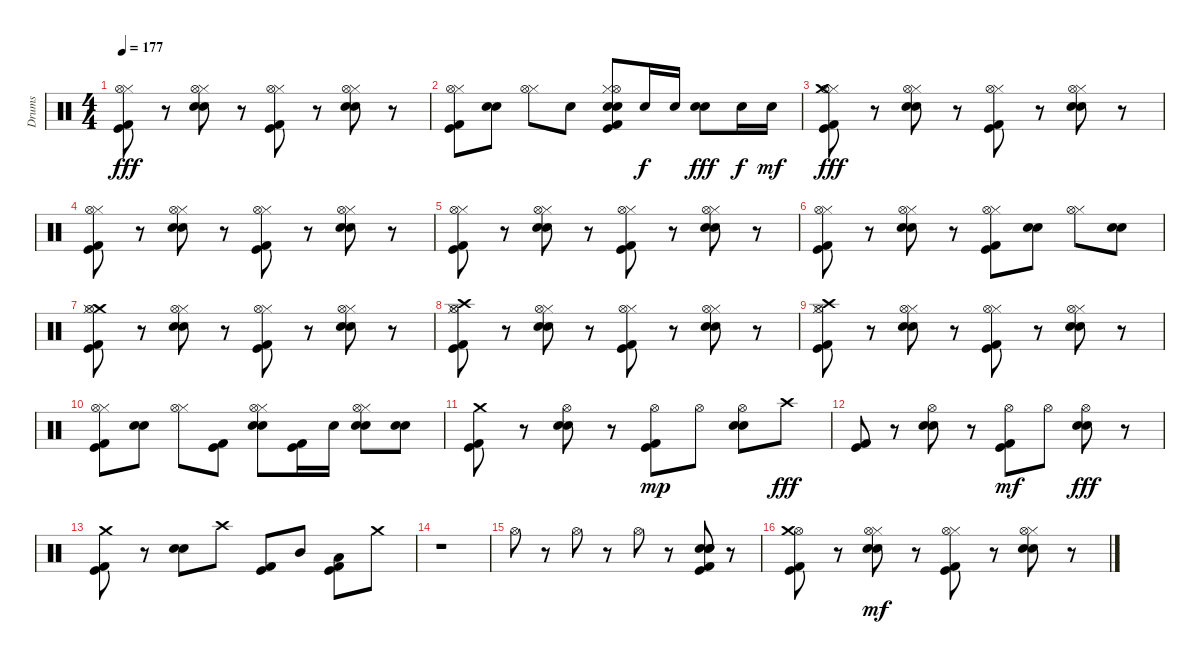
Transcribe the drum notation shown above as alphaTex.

\track ("Drums" "Drums") {instrument percussion}
\staff {score}
\articulation defaults
\ts (4 4)
\tempo 177
\clef neutral
\ks c
("Kick (hit) 2" "Kick (hit)" "Hi-Hat (closed)" "Hi-Hat (open)").8{dy fff} r.8 ("Electric Snare (hit)" "Snare (hit) 2" "Hi-Hat (closed)" "Hi-Hat (open)").8 r.8 ("Kick (hit) 2" "Kick (hit)" "Hi-Hat (closed)" "Hi-Hat (open)").8 r.8 ("Electric Snare (hit)" "Snare (hit) 2" "Hi-Hat (closed)" "Hi-Hat (open)").8 r.8 |
("Kick (hit) 2" "Kick (hit)" "Hi-Hat (closed)" "Hi-Hat (open)").8 ("Electric Snare (hit)" "Snare (hit) 2").8 ("Hi-Hat (closed)" "Hi-Hat (open)").8 "Snare (hit) 2".8 ("Kick (hit) 2" "Kick (hit)" "Hi-Hat (closed)" "Hi-Hat (open)" "Electric Snare (hit)" "Snare (hit) 2").8 "Electric Snare (hit)".16{dy f} "Electric Snare (hit)".16 ("Electric Snare (hit)" "Snare (hit) 2").8{dy fff} "Electric Snare (hit)".16{dy f} "Electric Snare (hit)".16{dy mf} |
("Kick (hit) 2" "Kick (hit)" "Hi-Hat (closed)" "Hi-Hat (open)" "Crash medium (hit)").8{dy fff} r.8 ("Electric Snare (hit)" "Snare (hit) 2" "Hi-Hat (closed)" "Hi-Hat (open)").8 r.8 ("Kick (hit) 2" "Kick (hit)" "Hi-Hat (closed)" "Hi-Hat (open)").8 r.8 ("Electric Snare (hit)" "Snare (hit) 2" "Hi-Hat (closed)" "Hi-Hat (open)").8 r.8 |
("Kick (hit) 2" "Kick (hit)" "Hi-Hat (closed)" "Hi-Hat (open)").8 r.8 ("Electric Snare (hit)" "Snare (hit) 2" "Hi-Hat (closed)" "Hi-Hat (open)").8 r.8 ("Kick (hit) 2" "Kick (hit)" "Hi-Hat (closed)" "Hi-Hat (open)").8 r.8 ("Electric Snare (hit)" "Snare (hit) 2" "Hi-Hat (closed)" "Hi-Hat (open)").8 r.8 |
("Kick (hit) 2" "Kick (hit)" "Hi-Hat (closed)" "Hi-Hat (open)").8 r.8 ("Electric Snare (hit)" "Snare (hit) 2" "Hi-Hat (closed)" "Hi-Hat (open)").8 r.8 ("Kick (hit) 2" "Kick (hit)" "Hi-Hat (closed)" "Hi-Hat (open)").8 r.8 ("Electric Snare (hit)" "Snare (hit) 2" "Hi-Hat (closed)" "Hi-Hat (open)").8 r.8 |
("Kick (hit) 2" "Kick (hit)" "Hi-Hat (closed)" "Hi-Hat (open)").8 r.8 ("Electric Snare (hit)" "Snare (hit) 2" "Hi-Hat (closed)" "Hi-Hat (open)").8 r.8 ("Kick (hit) 2" "Kick (hit)" "Hi-Hat (closed)" "Hi-Hat (open)").8 ("Electric Snare (hit)" "Snare (hit) 2").8 ("Hi-Hat (closed)" "Hi-Hat (open)").8 ("Electric Snare (hit)" "Snare (hit) 2").8 |
("Crash medium (hit)" "Kick (hit) 2" "Kick (hit)" "Hi-Hat (closed)" "Hi-Hat (open)").8 r.8 ("Electric Snare (hit)" "Snare (hit) 2" "Hi-Hat (closed)" "Hi-Hat (open)").8 r.8 ("Kick (hit) 2" "Kick (hit)" "Hi-Hat (closed)" "Hi-Hat (open)").8 r.8 ("Electric Snare (hit)" "Snare (hit) 2" "Hi-Hat (closed)" "Hi-Hat (open)").8 r.8 |
("Crash high (hit)" "Kick (hit) 2" "Kick (hit)" "Hi-Hat (closed)" "Hi-Hat (open)").8 r.8 ("Electric Snare (hit)" "Snare (hit) 2" "Hi-Hat (closed)" "Hi-Hat (open)").8 r.8 ("Kick (hit) 2" "Kick (hit)" "Hi-Hat (closed)" "Hi-Hat (open)").8 r.8 ("Electric Snare (hit)" "Snare (hit) 2" "Hi-Hat (closed)" "Hi-Hat (open)").8 r.8 |
("Crash high (hit)" "Kick (hit) 2" "Kick (hit)" "Hi-Hat (closed)" "Hi-Hat (open)").8 r.8 ("Electric Snare (hit)" "Snare (hit) 2" "Hi-Hat (closed)" "Hi-Hat (open)").8 r.8 ("Kick (hit) 2" "Kick (hit)" "Hi-Hat (closed)" "Hi-Hat (open)").8 r.8 ("Electric Snare (hit)" "Snare (hit) 2" "Hi-Hat (closed)" "Hi-Hat (open)").8 r.8 |
("Kick (hit) 2" "Kick (hit)" "Hi-Hat (closed)" "Hi-Hat (open)").8 ("Electric Snare (hit)" "Snare (hit) 2").8 ("Hi-Hat (closed)" "Hi-Hat (open)").8 ("Kick (hit) 2" "Kick (hit)").8 ("Electric Snare (hit)" "Snare (hit) 2" "Hi-Hat (closed)" "Hi-Hat (open)").8 ("Kick (hit) 2" "Kick (hit)").16 "Electric Snare (hit)".16 ("Electric Snare (hit)" "Snare (hit) 2" "Hi-Hat (closed)" "Hi-Hat (open)").8 ("Electric Snare (hit)" "Snare (hit) 2").8 |
("Kick (hit) 2" "Kick (hit)" "Crash medium (hit)").8 r.8 ("Hi-Hat (open)" "Electric Snare (hit)" "Snare (hit) 2").8 r.8 ("Kick (hit) 2" "Kick (hit)" "Hi-Hat (open)").8{dy mp} "Hi-Hat (open)".8 ("Electric Snare (hit)" "Snare (hit) 2" "Hi-Hat (open)").8 "Crash high (hit)".8{dy fff} |
("Kick (hit) 2" "Kick (hit)").8 r.8 ("Electric Snare (hit)" "Snare (hit) 2" "Hi-Hat (open)").8 r.8 ("Kick (hit) 2" "Kick (hit)" "Hi-Hat (open)").8{dy mf} "Hi-Hat (open)".8 ("Electric Snare (hit)" "Snare (hit) 2" "Hi-Hat (open)").8{dy fff} r.8 |
("Kick (hit) 2" "Kick (hit)" "Crash medium (hit)").8 r.8 ("Electric Snare (hit)" "Snare (hit) 2").8 "Crash high (hit)".8 ("Kick (hit) 2" "Kick (hit)").8 "Mid Tom (hit)".8 ("Low Tom (hit)" "Kick (hit) 2" "Kick (hit)").8 "Crash medium (hit)".8 |
r.1 |
"Hi-Hat (open)".8 r.8 "Hi-Hat (open)".8 r.8 "Hi-Hat (open)".8 r.8 ("Snare (hit) 2" "Electric Snare (hit)" "Snare (hit) 2" "Kick (hit) 2" "Kick (hit)").8 r.8 |
("Hi-Hat (open)" "Kick (hit) 2" "Kick (hit)" "Crash medium (hit)").8 r.8 ("Electric Snare (hit)" "Snare (hit) 2" "Hi-Hat (closed)" "Hi-Hat (open)").8{dy mf} r.8 ("Kick (hit) 2" "Kick (hit)" "Hi-Hat (closed)" "Hi-Hat (open)").8 r.8 ("Electric Snare (hit)" "Snare (hit) 2" "Hi-Hat (closed)" "Hi-Hat (open)").8 r.8
